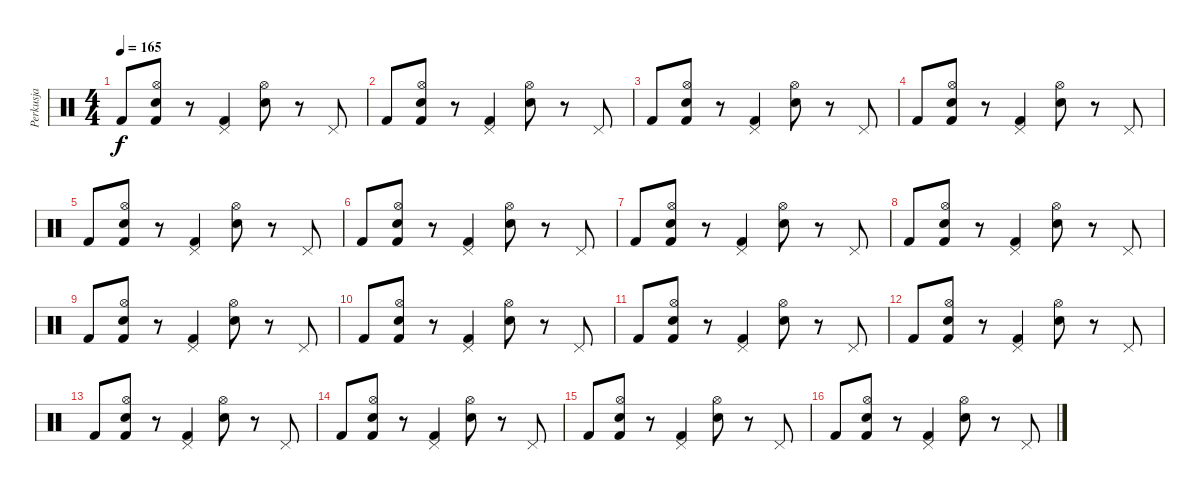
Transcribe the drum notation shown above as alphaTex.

\track ("Perkusja" "Perkusja") {instrument percussion}
\staff {score}
\articulation defaults
\ts (4 4)
\tempo 165
\clef neutral
\ks c "Kick (hit) 2".8{dy f}
("Hi-Hat (open)" "Electric Snare (hit)" "Kick (hit) 2").8 r.8 ("Pedal Hi-Hat (hit)" "Kick (hit) 2").4 ("Hi-Hat (open)" "Electric Snare (hit)").8 r.8 "Pedal Hi-Hat (hit)".8 |
"Kick (hit) 2".8 ("Hi-Hat (open)" "Electric Snare (hit)" "Kick (hit) 2").8 r.8 ("Pedal Hi-Hat (hit)" "Kick (hit) 2").4 ("Hi-Hat (open)" "Electric Snare (hit)").8 r.8 "Pedal Hi-Hat (hit)".8 |
"Kick (hit) 2".8 ("Hi-Hat (open)" "Electric Snare (hit)" "Kick (hit) 2").8 r.8 ("Pedal Hi-Hat (hit)" "Kick (hit) 2").4 ("Hi-Hat (open)" "Electric Snare (hit)").8 r.8 "Pedal Hi-Hat (hit)".8 |
"Kick (hit) 2".8 ("Hi-Hat (open)" "Electric Snare (hit)" "Kick (hit) 2").8 r.8 ("Pedal Hi-Hat (hit)" "Kick (hit) 2").4 ("Hi-Hat (open)" "Electric Snare (hit)").8 r.8 "Pedal Hi-Hat (hit)".8 |
"Kick (hit) 2".8 ("Hi-Hat (open)" "Electric Snare (hit)" "Kick (hit) 2").8 r.8 ("Pedal Hi-Hat (hit)" "Kick (hit) 2").4 ("Hi-Hat (open)" "Electric Snare (hit)").8 r.8 "Pedal Hi-Hat (hit)".8 |
"Kick (hit) 2".8 ("Hi-Hat (open)" "Electric Snare (hit)" "Kick (hit) 2").8 r.8 ("Pedal Hi-Hat (hit)" "Kick (hit) 2").4 ("Hi-Hat (open)" "Electric Snare (hit)").8 r.8 "Pedal Hi-Hat (hit)".8 |
"Kick (hit) 2".8 ("Hi-Hat (open)" "Electric Snare (hit)" "Kick (hit) 2").8 r.8 ("Pedal Hi-Hat (hit)" "Kick (hit) 2").4 ("Hi-Hat (open)" "Electric Snare (hit)").8 r.8 "Pedal Hi-Hat (hit)".8 |
"Kick (hit) 2".8 ("Hi-Hat (open)" "Electric Snare (hit)" "Kick (hit) 2").8 r.8 ("Pedal Hi-Hat (hit)" "Kick (hit) 2").4 ("Hi-Hat (open)" "Electric Snare (hit)").8 r.8 "Pedal Hi-Hat (hit)".8 |
"Kick (hit) 2".8 ("Hi-Hat (open)" "Electric Snare (hit)" "Kick (hit) 2").8 r.8 ("Pedal Hi-Hat (hit)" "Kick (hit) 2").4 ("Hi-Hat (open)" "Electric Snare (hit)").8 r.8 "Pedal Hi-Hat (hit)".8 |
"Kick (hit) 2".8 ("Hi-Hat (open)" "Electric Snare (hit)" "Kick (hit) 2").8 r.8 ("Pedal Hi-Hat (hit)" "Kick (hit) 2").4 ("Hi-Hat (open)" "Electric Snare (hit)").8 r.8 "Pedal Hi-Hat (hit)".8 |
"Kick (hit) 2".8 ("Hi-Hat (open)" "Electric Snare (hit)" "Kick (hit) 2").8 r.8 ("Pedal Hi-Hat (hit)" "Kick (hit) 2").4 ("Hi-Hat (open)" "Electric Snare (hit)").8 r.8 "Pedal Hi-Hat (hit)".8 |
"Kick (hit) 2".8 ("Hi-Hat (open)" "Electric Snare (hit)" "Kick (hit) 2").8 r.8 ("Pedal Hi-Hat (hit)" "Kick (hit) 2").4 ("Hi-Hat (open)" "Electric Snare (hit)").8 r.8 "Pedal Hi-Hat (hit)".8 |
"Kick (hit) 2".8 ("Hi-Hat (open)" "Electric Snare (hit)" "Kick (hit) 2").8 r.8 ("Pedal Hi-Hat (hit)" "Kick (hit) 2").4 ("Hi-Hat (open)" "Electric Snare (hit)").8 r.8 "Pedal Hi-Hat (hit)".8 |
"Kick (hit) 2".8 ("Hi-Hat (open)" "Electric Snare (hit)" "Kick (hit) 2").8 r.8 ("Pedal Hi-Hat (hit)" "Kick (hit) 2").4 ("Hi-Hat (open)" "Electric Snare (hit)").8 r.8 "Pedal Hi-Hat (hit)".8 |
"Kick (hit) 2".8 ("Hi-Hat (open)" "Electric Snare (hit)" "Kick (hit) 2").8 r.8 ("Pedal Hi-Hat (hit)" "Kick (hit) 2").4 ("Hi-Hat (open)" "Electric Snare (hit)").8 r.8 "Pedal Hi-Hat (hit)".8 |
"Kick (hit) 2".8 ("Hi-Hat (open)" "Electric Snare (hit)" "Kick (hit) 2").8 r.8 ("Pedal Hi-Hat (hit)" "Kick (hit) 2").4 ("Hi-Hat (open)" "Electric Snare (hit)").8 r.8 "Pedal Hi-Hat (hit)".8
